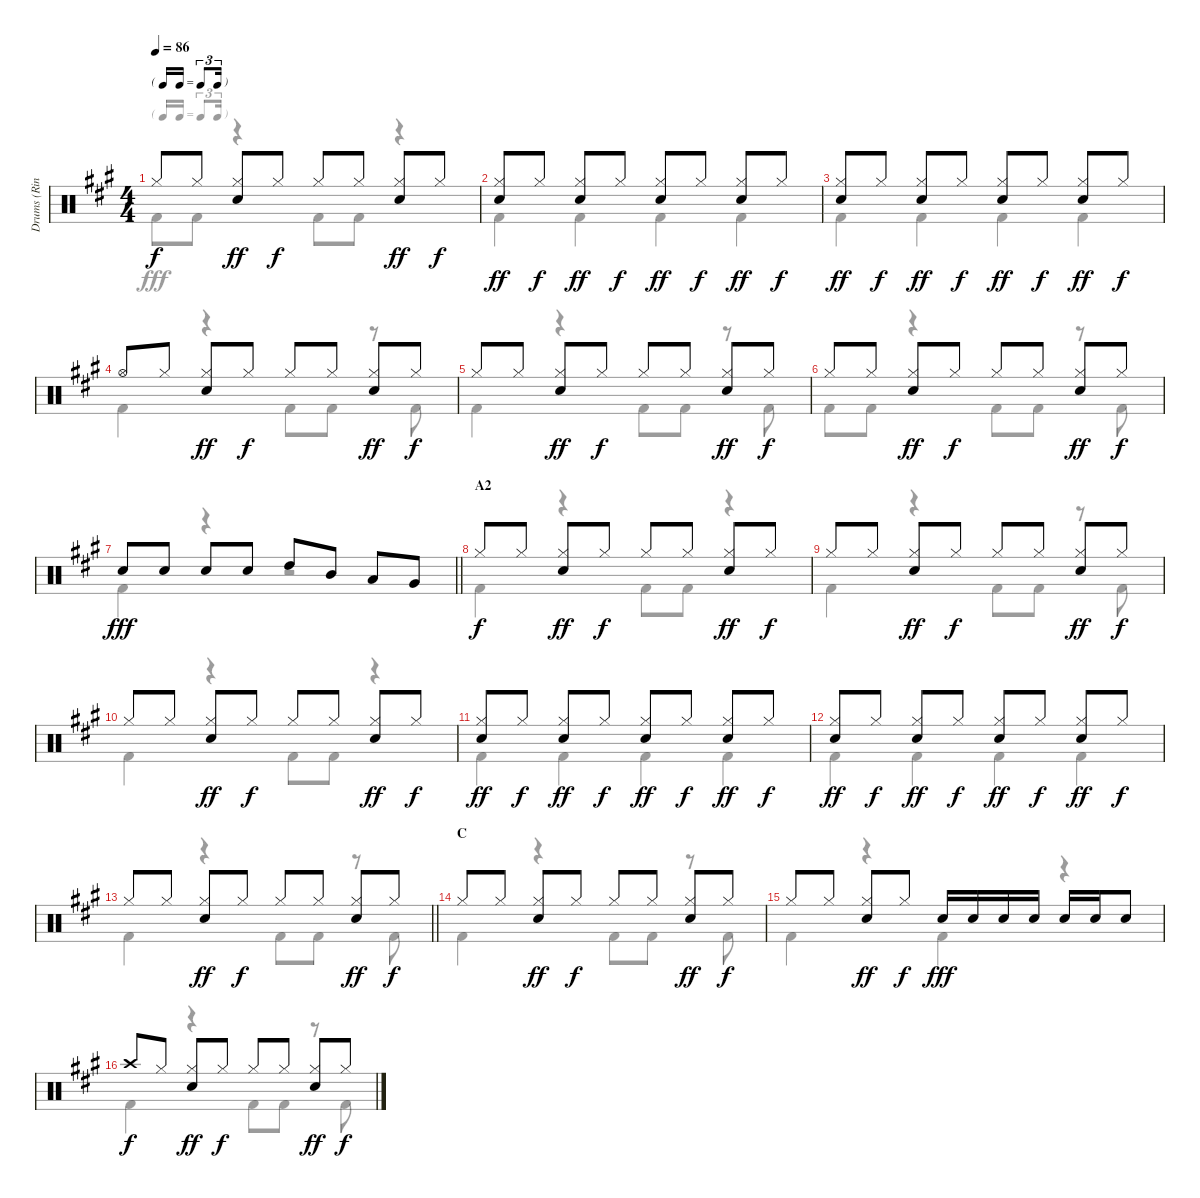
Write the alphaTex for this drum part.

\track ("Drums (Ringo Starr)" "Drums (Rin") {instrument percussion}
\staff {score}
\articulation defaults
\voice
\ts (4 4)
\tf triplet16th
\tempo 86
\clef neutral
\ks a "Hi-Hat (closed)".8{dy f} "Hi-Hat (closed)".8
("Hi-Hat (closed)" "Snare (hit) 2").8{dy ff} "Hi-Hat (closed)".8{dy f} "Hi-Hat (closed)".8 "Hi-Hat (closed)".8 ("Hi-Hat (closed)" "Snare (hit) 2").8{dy ff} "Hi-Hat (closed)".8{dy f} |
("Hi-Hat (closed)" "Snare (hit) 2").8{dy ff} "Hi-Hat (closed)".8{dy f} ("Hi-Hat (closed)" "Snare (hit) 2").8{dy ff} "Hi-Hat (closed)".8{dy f} ("Hi-Hat (closed)" "Snare (hit) 2").8{dy ff} "Hi-Hat (closed)".8{dy f} ("Hi-Hat (closed)" "Snare (hit) 2").8{dy ff} "Hi-Hat (closed)".8{dy f} |
("Hi-Hat (closed)" "Snare (hit) 2").8{dy ff} "Hi-Hat (closed)".8{dy f} ("Hi-Hat (closed)" "Snare (hit) 2").8{dy ff} "Hi-Hat (closed)".8{dy f} ("Hi-Hat (closed)" "Snare (hit) 2").8{dy ff} "Hi-Hat (closed)".8{dy f} ("Hi-Hat (closed)" "Snare (hit) 2").8{dy ff} "Hi-Hat (closed)".8{dy f} |
"Hi-Hat (open)".8 "Hi-Hat (closed)".8 ("Hi-Hat (closed)" "Snare (hit) 2").8{dy ff} "Hi-Hat (closed)".8{dy f} "Hi-Hat (closed)".8 "Hi-Hat (closed)".8 ("Hi-Hat (closed)" "Snare (hit) 2").8{dy ff} "Hi-Hat (closed)".8{dy f} |
"Hi-Hat (closed)".8 "Hi-Hat (closed)".8 ("Hi-Hat (closed)" "Snare (hit) 2").8{dy ff} "Hi-Hat (closed)".8{dy f} "Hi-Hat (closed)".8 "Hi-Hat (closed)".8 ("Hi-Hat (closed)" "Snare (hit) 2").8{dy ff} "Hi-Hat (closed)".8{dy f} |
"Hi-Hat (closed)".8 "Hi-Hat (closed)".8 ("Hi-Hat (closed)" "Snare (hit) 2").8{dy ff} "Hi-Hat (closed)".8{dy f} "Hi-Hat (closed)".8 "Hi-Hat (closed)".8 ("Hi-Hat (closed)" "Snare (hit) 2").8{dy ff} "Hi-Hat (closed)".8{dy f} |
\barLineRight lightlight "Snare (hit) 2".8{dy fff} "Snare (hit) 2".8 "Snare (hit) 2".8 "Snare (hit) 2".8 "High Tom (hit)".8 "Mid Tom (hit)".8 "Low Tom (hit)".8 "Very Low Tom (hit)".8
|
\section ("" "A2")
"Hi-Hat (closed)".8{dy f} "Hi-Hat (closed)".8 ("Hi-Hat (closed)" "Snare (hit) 2").8{dy ff} "Hi-Hat (closed)".8{dy f} "Hi-Hat (closed)".8 "Hi-Hat (closed)".8 ("Hi-Hat (closed)" "Snare (hit) 2").8{dy ff} "Hi-Hat (closed)".8{dy f} |
"Hi-Hat (closed)".8 "Hi-Hat (closed)".8 ("Hi-Hat (closed)" "Snare (hit) 2").8{dy ff} "Hi-Hat (closed)".8{dy f} "Hi-Hat (closed)".8 "Hi-Hat (closed)".8 ("Hi-Hat (closed)" "Snare (hit) 2").8{dy ff} "Hi-Hat (closed)".8{dy f} |
"Hi-Hat (closed)".8 "Hi-Hat (closed)".8 ("Hi-Hat (closed)" "Snare (hit) 2").8{dy ff} "Hi-Hat (closed)".8{dy f} "Hi-Hat (closed)".8 "Hi-Hat (closed)".8 ("Hi-Hat (closed)" "Snare (hit) 2").8{dy ff} "Hi-Hat (closed)".8{dy f} |
("Hi-Hat (closed)" "Snare (hit) 2").8{dy ff} "Hi-Hat (closed)".8{dy f} ("Hi-Hat (closed)" "Snare (hit) 2").8{dy ff} "Hi-Hat (closed)".8{dy f} ("Hi-Hat (closed)" "Snare (hit) 2").8{dy ff} "Hi-Hat (closed)".8{dy f} ("Hi-Hat (closed)" "Snare (hit) 2").8{dy ff} "Hi-Hat (closed)".8{dy f} |
("Hi-Hat (closed)" "Snare (hit) 2").8{dy ff} "Hi-Hat (closed)".8{dy f} ("Hi-Hat (closed)" "Snare (hit) 2").8{dy ff} "Hi-Hat (closed)".8{dy f} ("Hi-Hat (closed)" "Snare (hit) 2").8{dy ff} "Hi-Hat (closed)".8{dy f} ("Hi-Hat (closed)" "Snare (hit) 2").8{dy ff} "Hi-Hat (closed)".8{dy f} |
\barLineRight lightlight "Hi-Hat (closed)".8 "Hi-Hat (closed)".8
("Hi-Hat (closed)" "Snare (hit) 2").8{dy ff} "Hi-Hat (closed)".8{dy f} "Hi-Hat (closed)".8 "Hi-Hat (closed)".8 ("Hi-Hat (closed)" "Snare (hit) 2").8{dy ff} "Hi-Hat (closed)".8{dy f} |
\section ("" "C")
"Hi-Hat (closed)".8 "Hi-Hat (closed)".8 ("Hi-Hat (closed)" "Snare (hit) 2").8{dy ff} "Hi-Hat (closed)".8{dy f} "Hi-Hat (closed)".8 "Hi-Hat (closed)".8 ("Hi-Hat (closed)" "Snare (hit) 2").8{dy ff} "Hi-Hat (closed)".8{dy f} |
"Hi-Hat (closed)".8 "Hi-Hat (closed)".8 ("Hi-Hat (closed)" "Snare (hit) 2").8{dy ff} "Hi-Hat (closed)".8{dy f} "Snare (hit) 2".16{dy fff} "Snare (hit) 2".16 "Snare (hit) 2".16 "Snare (hit) 2".16 "Snare (hit) 2".16 "Snare (hit) 2".16 "Snare (hit) 2".8 |
"Crash high (hit)".8{dy f} "Hi-Hat (closed)".8 ("Hi-Hat (closed)" "Snare (hit) 2").8{dy ff} "Hi-Hat (closed)".8{dy f} "Hi-Hat (closed)".8 "Hi-Hat (closed)".8 ("Hi-Hat (closed)" "Snare (hit) 2").8{dy ff} "Hi-Hat (closed)".8{dy f}
\voice
\clef neutral
\ottava regular
\simile none
\ks a "Kick (hit) 2".8{dy fff} "Kick (hit) 2".8
r.4 "Kick (hit) 2".8 "Kick (hit) 2".8 r.4 |
"Kick (hit) 2".4 "Kick (hit) 2".4 "Kick (hit) 2".4 "Kick (hit) 2".4 |
"Kick (hit) 2".4 "Kick (hit) 2".4 "Kick (hit) 2".4 "Kick (hit) 2".4 |
"Kick (hit) 2".4 r.4 "Kick (hit) 2".8 "Kick (hit) 2".8 r.8 "Kick (hit) 2".8 |
"Kick (hit) 2".4 r.4 "Kick (hit) 2".8 "Kick (hit) 2".8 r.8 "Kick (hit) 2".8 |
"Kick (hit) 2".8 "Kick (hit) 2".8 r.4 "Kick (hit) 2".8 "Kick (hit) 2".8 r.8 "Kick (hit) 2".8 |
\barLineRight lightlight "Kick (hit) 2".4
r.4 r.2 |
"Kick (hit) 2".4 r.4 "Kick (hit) 2".8 "Kick (hit) 2".8 r.4 |
"Kick (hit) 2".4 r.4 "Kick (hit) 2".8 "Kick (hit) 2".8 r.8 "Kick (hit) 2".8 |
"Kick (hit) 2".4 r.4 "Kick (hit) 2".8 "Kick (hit) 2".8 r.4 |
"Kick (hit) 2".4 "Kick (hit) 2".4 "Kick (hit) 2".4 "Kick (hit) 2".4 |
"Kick (hit) 2".4 "Kick (hit) 2".4 "Kick (hit) 2".4 "Kick (hit) 2".4 |
\barLineRight lightlight "Kick (hit) 2".4
r.4 "Kick (hit) 2".8 "Kick (hit) 2".8 r.8 "Kick (hit) 2".8 |
"Kick (hit) 2".4 r.4 "Kick (hit) 2".8 "Kick (hit) 2".8 r.8 "Kick (hit) 2".8 |
"Kick (hit) 2".4 r.4 "Kick (hit) 2".4 r.4 |
"Kick (hit) 2".4 r.4 "Kick (hit) 2".8 "Kick (hit) 2".8 r.8 "Kick (hit) 2".8
